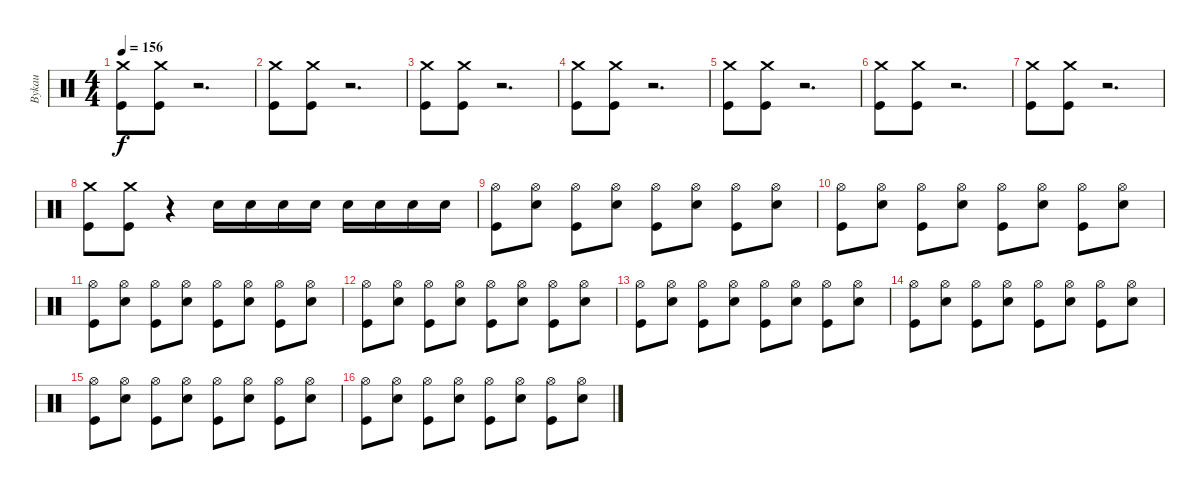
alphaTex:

\track ("Bykau" "Bykau") {instrument percussion}
\staff {score}
\articulation defaults
\ts (4 4)
\tempo 156
\clef neutral
\ks c
("Crash medium (hit)" "Kick (hit)").8{dy f} ("Crash medium (hit)" "Kick (hit)").8 r.2{d} |
("Crash medium (hit)" "Kick (hit)").8 ("Crash medium (hit)" "Kick (hit)").8 r.2{d} |
("Crash medium (hit)" "Kick (hit)").8 ("Crash medium (hit)" "Kick (hit)").8 r.2{d} |
("Crash medium (hit)" "Kick (hit)").8 ("Crash medium (hit)" "Kick (hit)").8 r.2{d} |
("Crash medium (hit)" "Kick (hit)").8 ("Crash medium (hit)" "Kick (hit)").8 r.2{d} |
("Crash medium (hit)" "Kick (hit)").8 ("Crash medium (hit)" "Kick (hit)").8 r.2{d} |
("Crash medium (hit)" "Kick (hit)").8 ("Crash medium (hit)" "Kick (hit)").8 r.2{d} |
("Crash medium (hit)" "Kick (hit)").8 ("Crash medium (hit)" "Kick (hit)").8 r.4 "Electric Snare (hit)".16 "Electric Snare (hit)".16 "Electric Snare (hit)".16 "Electric Snare (hit)".16 "Electric Snare (hit)".16 "Electric Snare (hit)".16 "Electric Snare (hit)".16 "Electric Snare (hit)".16 |
("Hi-Hat (open)" "Kick (hit)").8 ("Hi-Hat (open)" "Electric Snare (hit)").8 ("Hi-Hat (open)" "Kick (hit)").8 ("Hi-Hat (open)" "Electric Snare (hit)").8 ("Hi-Hat (open)" "Kick (hit)").8 ("Hi-Hat (open)" "Electric Snare (hit)").8 ("Hi-Hat (open)" "Kick (hit)").8 ("Hi-Hat (open)" "Electric Snare (hit)").8 |
("Hi-Hat (open)" "Kick (hit)").8 ("Hi-Hat (open)" "Electric Snare (hit)").8 ("Hi-Hat (open)" "Kick (hit)").8 ("Hi-Hat (open)" "Electric Snare (hit)").8 ("Hi-Hat (open)" "Kick (hit)").8 ("Hi-Hat (open)" "Electric Snare (hit)").8 ("Hi-Hat (open)" "Kick (hit)").8 ("Hi-Hat (open)" "Electric Snare (hit)").8 |
("Hi-Hat (open)" "Kick (hit)").8 ("Hi-Hat (open)" "Electric Snare (hit)").8 ("Hi-Hat (open)" "Kick (hit)").8 ("Hi-Hat (open)" "Electric Snare (hit)").8 ("Hi-Hat (open)" "Kick (hit)").8 ("Hi-Hat (open)" "Electric Snare (hit)").8 ("Hi-Hat (open)" "Kick (hit)").8 ("Hi-Hat (open)" "Electric Snare (hit)").8 |
("Hi-Hat (open)" "Kick (hit)").8 ("Hi-Hat (open)" "Electric Snare (hit)").8 ("Hi-Hat (open)" "Kick (hit)").8 ("Hi-Hat (open)" "Electric Snare (hit)").8 ("Hi-Hat (open)" "Kick (hit)").8 ("Hi-Hat (open)" "Electric Snare (hit)").8 ("Hi-Hat (open)" "Kick (hit)").8 ("Hi-Hat (open)" "Electric Snare (hit)").8 |
("Hi-Hat (open)" "Kick (hit)").8 ("Hi-Hat (open)" "Electric Snare (hit)").8 ("Hi-Hat (open)" "Kick (hit)").8 ("Hi-Hat (open)" "Electric Snare (hit)").8 ("Hi-Hat (open)" "Kick (hit)").8 ("Hi-Hat (open)" "Electric Snare (hit)").8 ("Hi-Hat (open)" "Kick (hit)").8 ("Hi-Hat (open)" "Electric Snare (hit)").8 |
("Hi-Hat (open)" "Kick (hit)").8 ("Hi-Hat (open)" "Electric Snare (hit)").8 ("Hi-Hat (open)" "Kick (hit)").8 ("Hi-Hat (open)" "Electric Snare (hit)").8 ("Hi-Hat (open)" "Kick (hit)").8 ("Hi-Hat (open)" "Electric Snare (hit)").8 ("Hi-Hat (open)" "Kick (hit)").8 ("Hi-Hat (open)" "Electric Snare (hit)").8 |
("Hi-Hat (open)" "Kick (hit)").8 ("Hi-Hat (open)" "Electric Snare (hit)").8 ("Hi-Hat (open)" "Kick (hit)").8 ("Hi-Hat (open)" "Electric Snare (hit)").8 ("Hi-Hat (open)" "Kick (hit)").8 ("Hi-Hat (open)" "Electric Snare (hit)").8 ("Hi-Hat (open)" "Kick (hit)").8 ("Hi-Hat (open)" "Electric Snare (hit)").8 |
("Hi-Hat (open)" "Kick (hit)").8 ("Hi-Hat (open)" "Electric Snare (hit)").8 ("Hi-Hat (open)" "Kick (hit)").8 ("Hi-Hat (open)" "Electric Snare (hit)").8 ("Hi-Hat (open)" "Kick (hit)").8 ("Hi-Hat (open)" "Electric Snare (hit)").8 ("Hi-Hat (open)" "Kick (hit)").8 ("Hi-Hat (open)" "Electric Snare (hit)").8
